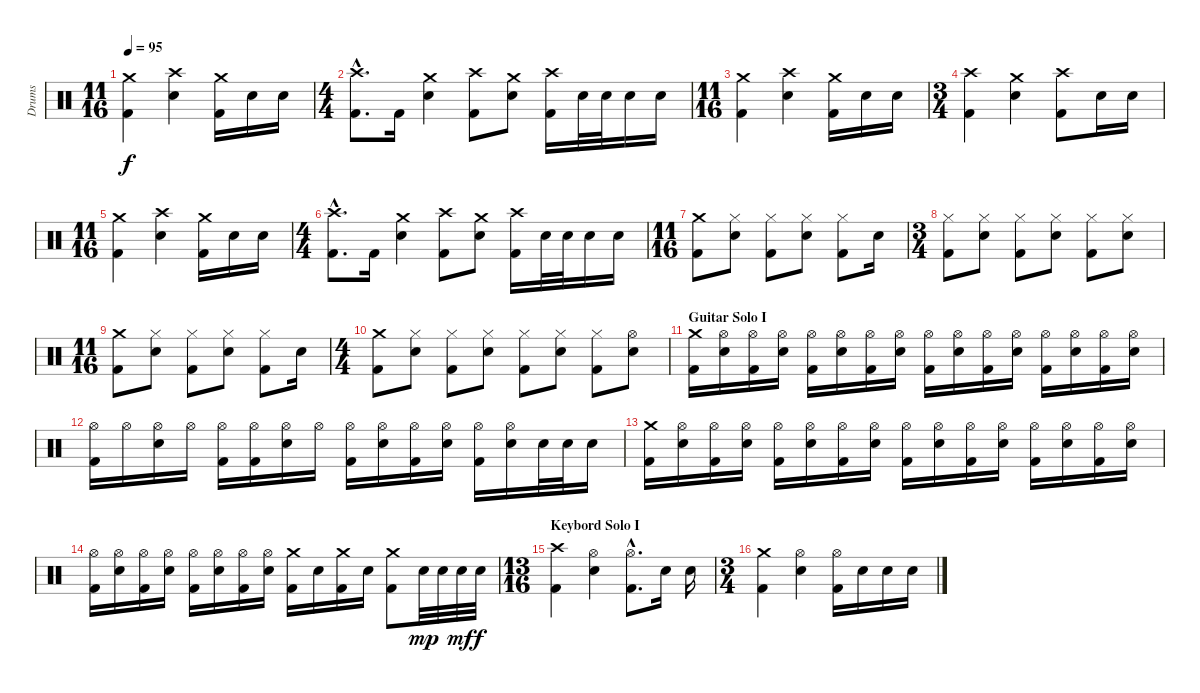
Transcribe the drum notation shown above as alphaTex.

\track ("Drums" "Drums") {instrument percussion}
\staff {score}
\articulation defaults
\ts (11 16)
\tempo 95
\clef neutral
\ks c
("Crash medium (hit)" "Kick (hit) 2").4{dy f} ("Crash high (hit)" "Snare (hit) 2").4 ("Crash medium (hit)" "Kick (hit) 2").16 "Snare (hit) 2".16 "Snare (hit) 2".16 |
\ts (4 4)
("Crash high (hit)"{hac} "Kick (hit) 2"{hac}).8{d} "Kick (hit) 2".16 ("Crash medium (hit)" "Snare (hit) 2").4 ("Crash high (hit)" "Kick (hit) 2").8 ("Crash medium (hit)" "Snare (hit) 2").8 ("Crash high (hit)" "Kick (hit) 2").16 "Snare (hit) 2".32 "Snare (hit) 2".32 "Snare (hit) 2".16 "Snare (hit) 2".16 |
\ts (11 16)
("Crash medium (hit)" "Kick (hit) 2").4 ("Crash high (hit)" "Snare (hit) 2").4 ("Crash medium (hit)" "Kick (hit) 2").16 "Snare (hit) 2".16 "Snare (hit) 2".16 |
\ts (3 4)
("Crash high (hit)" "Kick (hit) 2").4 ("Crash medium (hit)" "Snare (hit) 2").4 ("Crash high (hit)" "Kick (hit) 2").8 "Snare (hit) 2".16 "Snare (hit) 2".16 |
\ts (11 16)
("Crash medium (hit)" "Kick (hit) 2").4 ("Crash high (hit)" "Snare (hit) 2").4 ("Crash medium (hit)" "Kick (hit) 2").16 "Snare (hit) 2".16 "Snare (hit) 2".16 |
\ts (4 4)
("Crash high (hit)"{hac} "Kick (hit) 2"{hac}).8{d} "Kick (hit) 2".16 ("Crash medium (hit)" "Snare (hit) 2").4 ("Crash high (hit)" "Kick (hit) 2").8 ("Crash medium (hit)" "Snare (hit) 2").8 ("Crash high (hit)" "Kick (hit) 2").16 "Snare (hit) 2".32 "Snare (hit) 2".32 "Snare (hit) 2".16 "Snare (hit) 2".16 |
\ts (11 16)
("Crash medium (hit)" "Kick (hit) 2").8 ("Hi-Hat (closed)" "Snare (hit) 2").8 ("Hi-Hat (closed)" "Kick (hit) 2").8 ("Hi-Hat (closed)" "Snare (hit) 2").8 ("Hi-Hat (closed)" "Kick (hit) 2").8 "Snare (hit) 2".16 |
\ts (3 4)
("Hi-Hat (closed)" "Kick (hit) 2").8 ("Hi-Hat (closed)" "Snare (hit) 2").8 ("Hi-Hat (closed)" "Kick (hit) 2").8 ("Hi-Hat (closed)" "Snare (hit) 2").8 ("Hi-Hat (closed)" "Kick (hit) 2").8 ("Hi-Hat (closed)" "Snare (hit) 2").8 |
\ts (11 16)
("Crash medium (hit)" "Kick (hit) 2").8 ("Hi-Hat (closed)" "Snare (hit) 2").8 ("Hi-Hat (closed)" "Kick (hit) 2").8 ("Hi-Hat (closed)" "Snare (hit) 2").8 ("Hi-Hat (closed)" "Kick (hit) 2").8 "Snare (hit) 2".16 |
\ts (4 4)
("Crash medium (hit)" "Kick (hit) 2").8 ("Hi-Hat (closed)" "Snare (hit) 2").8 ("Hi-Hat (closed)" "Kick (hit) 2").8 ("Hi-Hat (closed)" "Snare (hit) 2").8 ("Hi-Hat (closed)" "Kick (hit) 2").8 ("Hi-Hat (closed)" "Snare (hit) 2").8 ("Hi-Hat (closed)" "Kick (hit) 2").8 ("Hi-Hat (open)" "Snare (hit) 2").8 |
\section ("" "Guitar Solo I")
("Crash medium (hit)" "Kick (hit) 2").16 ("Hi-Hat (open)" "Snare (hit) 2").16 ("Hi-Hat (open)" "Kick (hit) 2").16 ("Hi-Hat (open)" "Snare (hit) 2").16 ("Hi-Hat (open)" "Kick (hit) 2").16 ("Hi-Hat (open)" "Snare (hit) 2").16 ("Hi-Hat (open)" "Kick (hit) 2").16 ("Hi-Hat (open)" "Snare (hit) 2").16 ("Hi-Hat (open)" "Kick (hit) 2").16 ("Hi-Hat (open)" "Snare (hit) 2").16 ("Hi-Hat (open)" "Kick (hit) 2").16 ("Hi-Hat (open)" "Snare (hit) 2").16 ("Hi-Hat (open)" "Kick (hit) 2").16 ("Hi-Hat (open)" "Snare (hit) 2").16 ("Hi-Hat (open)" "Kick (hit) 2").16 ("Hi-Hat (open)" "Snare (hit) 2").16 |
("Hi-Hat (open)" "Kick (hit) 2").16 "Hi-Hat (open)".16 ("Hi-Hat (open)" "Snare (hit) 2").16 "Hi-Hat (open)".16 ("Hi-Hat (open)" "Kick (hit) 2").16 ("Hi-Hat (open)" "Kick (hit) 2").16 ("Hi-Hat (open)" "Snare (hit) 2").16 "Hi-Hat (open)".16 ("Hi-Hat (open)" "Kick (hit) 2").16 ("Hi-Hat (open)" "Snare (hit) 2").16 ("Hi-Hat (open)" "Kick (hit) 2").16 ("Hi-Hat (open)" "Snare (hit) 2").16 ("Hi-Hat (open)" "Kick (hit) 2").16 ("Hi-Hat (open)" "Snare (hit) 2").16 "Snare (hit) 2".32 "Snare (hit) 2".32 "Snare (hit) 2".16 |
("Crash medium (hit)" "Kick (hit) 2").16 ("Hi-Hat (open)" "Snare (hit) 2").16 ("Hi-Hat (open)" "Kick (hit) 2").16 ("Hi-Hat (open)" "Snare (hit) 2").16 ("Hi-Hat (open)" "Kick (hit) 2").16 ("Hi-Hat (open)" "Snare (hit) 2").16 ("Hi-Hat (open)" "Kick (hit) 2").16 ("Hi-Hat (open)" "Snare (hit) 2").16 ("Hi-Hat (open)" "Kick (hit) 2").16 ("Hi-Hat (open)" "Snare (hit) 2").16 ("Hi-Hat (open)" "Kick (hit) 2").16 ("Hi-Hat (open)" "Snare (hit) 2").16 ("Hi-Hat (open)" "Kick (hit) 2").16 ("Hi-Hat (open)" "Snare (hit) 2").16 ("Hi-Hat (open)" "Kick (hit) 2").16 ("Hi-Hat (open)" "Snare (hit) 2").16 |
("Hi-Hat (open)" "Kick (hit) 2").16 ("Hi-Hat (open)" "Snare (hit) 2").16 ("Hi-Hat (open)" "Kick (hit) 2").16 ("Hi-Hat (open)" "Snare (hit) 2").16 ("Hi-Hat (open)" "Kick (hit) 2").16 ("Hi-Hat (open)" "Snare (hit) 2").16 ("Hi-Hat (open)" "Kick (hit) 2").16 ("Hi-Hat (open)" "Snare (hit) 2").16 ("Crash medium (hit)" "Kick (hit) 2").16 "Snare (hit) 2".16 ("Crash medium (hit)" "Kick (hit) 2").16 "Snare (hit) 2".16 ("Crash medium (hit)" "Kick (hit) 2").8 "Snare (hit) 2".32{dy mp} "Snare (hit) 2".32 "Snare (hit) 2".32{dy mf} "Snare (hit) 2".32{dy f} |
\ts (13 16)
\section ("" "Keybord Solo I")
("Crash high (hit)" "Kick (hit) 2").4 ("Hi-Hat (open)" "Snare (hit) 2").4 ("Hi-Hat (open)"{hac} "Kick (hit) 2"{hac}).8{d} "Snare (hit) 2".16 "Snare (hit) 2".16 |
\ts (3 4)
("Crash medium (hit)" "Kick (hit) 2").4 ("Hi-Hat (open)" "Snare (hit) 2").4 ("Hi-Hat (open)" "Kick (hit) 2").16 "Snare (hit) 2".16 "Snare (hit) 2".16 "Snare (hit) 2".16
